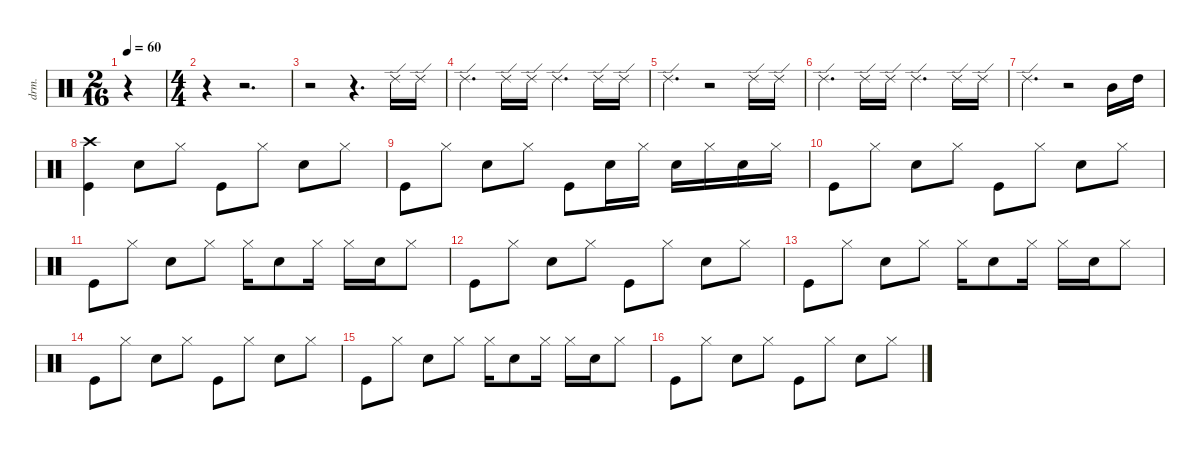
\defaultSystemsLayout 4
\hideDynamics
\bracketExtendMode nobrackets
\otherSystemsTrackNameOrientation horizontal
\track ("Drums" "drm.") {instrument percussion}
\staff {score}
\articulation defaults
\ts (2 16)
\tempo 60
\clef neutral
\ks c
r.4{dy f} |
\ts (4 4)
r.4 r.2{d} |
r.2 r.4{d} "Ride (edge) 2".16 "Ride (edge) 2".16 |
"Ride (edge) 2".4{d} "Ride (edge) 2".16 "Ride (edge) 2".16 "Ride (edge) 2".4{d} "Ride (edge) 2".16 "Ride (edge) 2".16 |
"Ride (edge) 2".4{d} r.2 "Ride (edge) 2".16 "Ride (edge) 2".16 |
"Ride (edge) 2".4{d} "Ride (edge) 2".16 "Ride (edge) 2".16 "Ride (edge) 2".4{d} "Ride (edge) 2".16 "Ride (edge) 2".16 |
"Ride (edge) 2".4{d} r.2 "Mid Tom (hit)".16{dy fff} "High Tom (hit)".16 |
("Crash high (hit)" "Kick (hit)").4{dy f} "Snare (hit) 2".8{dy mf} "Hi-Hat (closed)".8{dy p} "Kick (hit)".8{dy f} "Hi-Hat (closed)".8{dy p} "Snare (hit) 2".8{dy f} "Hi-Hat (closed)".8{dy p} |
"Kick (hit)".8{dy f} "Hi-Hat (closed)".8{dy mp} "Snare (hit) 2".8{dy f} "Hi-Hat (closed)".8{dy mp} "Kick (hit)".8{dy f} "Snare (hit) 2".16 "Hi-Hat (closed)".16{dy mp} "Snare (hit) 2".16{dy f} "Hi-Hat (closed)".16{dy mp} "Snare (hit) 2".16{dy f} "Hi-Hat (closed)".16{dy mp} |
"Kick (hit)".8{dy f} "Hi-Hat (closed)".8 "Snare (hit) 2".8 "Hi-Hat (closed)".8 "Kick (hit)".8 "Hi-Hat (closed)".8 "Snare (hit) 2".8 "Hi-Hat (closed)".8 |
"Kick (hit)".8 "Hi-Hat (closed)".8{dy mp} "Snare (hit) 2".8{dy f} "Hi-Hat (closed)".8{dy mp} "Hi-Hat (closed)".16{dy f} "Snare (hit) 2".8 "Hi-Hat (closed)".16 "Hi-Hat (closed)".16{dy mp} "Snare (hit) 2".16{dy f} "Hi-Hat (closed)".8 |
"Kick (hit)".8 "Hi-Hat (closed)".8 "Snare (hit) 2".8 "Hi-Hat (closed)".8 "Kick (hit)".8 "Hi-Hat (closed)".8 "Snare (hit) 2".8 "Hi-Hat (closed)".8 |
"Kick (hit)".8 "Hi-Hat (closed)".8{dy mp} "Snare (hit) 2".8{dy f} "Hi-Hat (closed)".8{dy mp} "Hi-Hat (closed)".16{dy f} "Snare (hit) 2".8 "Hi-Hat (closed)".16 "Hi-Hat (closed)".16{dy mp} "Snare (hit) 2".16{dy f} "Hi-Hat (closed)".8 |
"Kick (hit)".8 "Hi-Hat (closed)".8 "Snare (hit) 2".8 "Hi-Hat (closed)".8 "Kick (hit)".8 "Hi-Hat (closed)".8 "Snare (hit) 2".8 "Hi-Hat (closed)".8 |
"Kick (hit)".8 "Hi-Hat (closed)".8{dy mp} "Snare (hit) 2".8{dy f} "Hi-Hat (closed)".8{dy mp} "Hi-Hat (closed)".16{dy f} "Snare (hit) 2".8 "Hi-Hat (closed)".16 "Hi-Hat (closed)".16{dy mp} "Snare (hit) 2".16{dy f} "Hi-Hat (closed)".8 |
"Kick (hit)".8 "Hi-Hat (closed)".8 "Snare (hit) 2".8 "Hi-Hat (closed)".8 "Kick (hit)".8 "Hi-Hat (closed)".8 "Snare (hit) 2".8 "Hi-Hat (closed)".8
